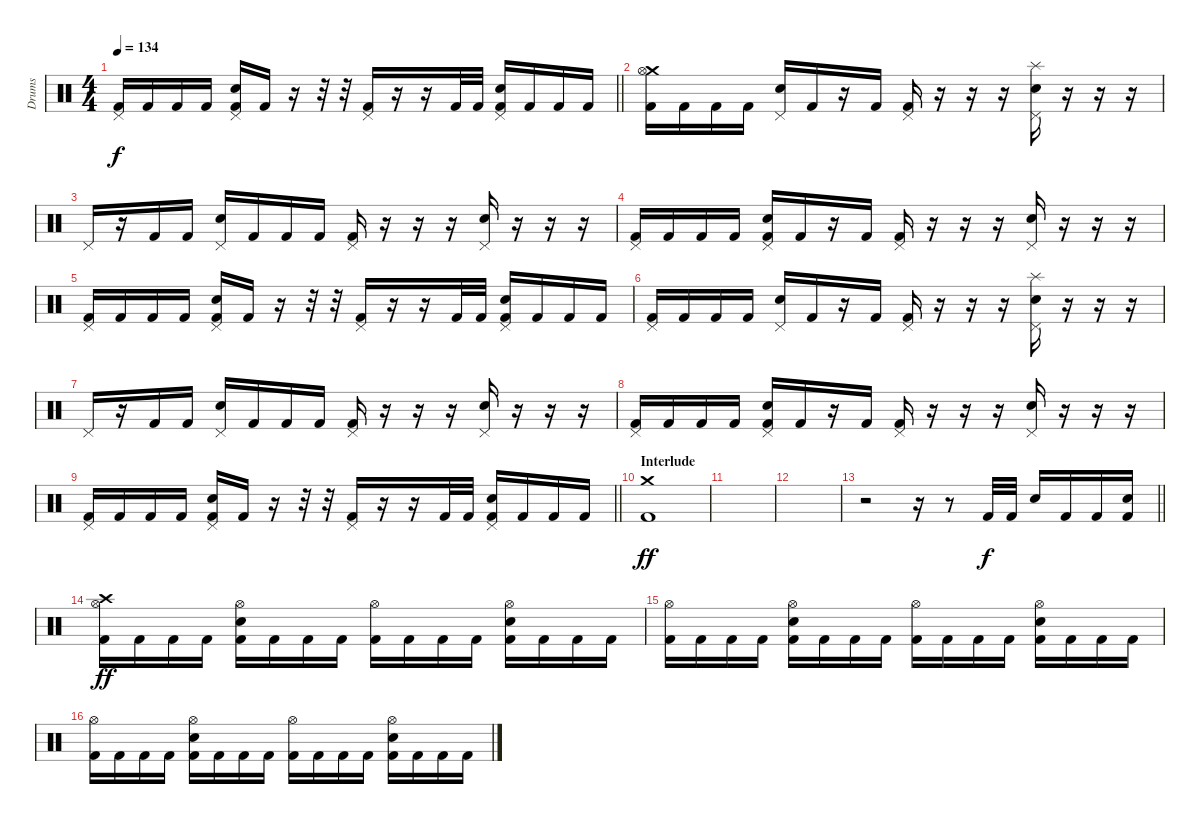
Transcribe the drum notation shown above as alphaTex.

\track ("Drums" "Drums") {instrument percussion}
\staff {score}
\articulation defaults
\ts (4 4)
\tempo 134
\clef neutral
\barLineRight lightlight
\ks c
("Pedal Hi-Hat (hit)" "Kick (hit) 2").16{dy f} "Kick (hit) 2".16 "Kick (hit) 2".16 "Kick (hit) 2".16 ("Pedal Hi-Hat (hit)" "Snare (hit) 2" "Kick (hit) 2").16 "Kick (hit) 2".16 r.16 r.32 r.32 ("Pedal Hi-Hat (hit)" "Kick (hit) 2").16 r.16 r.16 "Kick (hit) 2".32 "Kick (hit) 2".32 ("Pedal Hi-Hat (hit)" "Snare (hit) 2" "Kick (hit) 2").16 "Kick (hit) 2".16 "Kick (hit) 2".16 "Kick (hit) 2".16 |
\section ("" "")
("Crash medium (hit)" "Hi-Hat (open)" "Kick (hit) 2").16 "Kick (hit) 2".16 "Kick (hit) 2".16 "Kick (hit) 2".16 ("Pedal Hi-Hat (hit)" "Snare (hit) 2").16 "Kick (hit) 2".16 r.16 "Kick (hit) 2".16 ("Pedal Hi-Hat (hit)" "Kick (hit) 2").16 r.16 r.16 r.16 ("Splash (hit)" "Pedal Hi-Hat (hit)" "Snare (hit) 2").16 r.16 r.16 r.16 |
"Pedal Hi-Hat (hit)".16 r.16 "Kick (hit) 2".16 "Kick (hit) 2".16 ("Pedal Hi-Hat (hit)" "Snare (hit) 2").16 "Kick (hit) 2".16 "Kick (hit) 2".16 "Kick (hit) 2".16 ("Pedal Hi-Hat (hit)" "Kick (hit) 2").16 r.16 r.16 r.16 ("Pedal Hi-Hat (hit)" "Snare (hit) 2").16 r.16 r.16 r.16 |
("Pedal Hi-Hat (hit)" "Kick (hit) 2").16 "Kick (hit) 2".16 "Kick (hit) 2".16 "Kick (hit) 2".16 ("Pedal Hi-Hat (hit)" "Snare (hit) 2" "Kick (hit) 2").16 "Kick (hit) 2".16 r.16 "Kick (hit) 2".16 ("Pedal Hi-Hat (hit)" "Kick (hit) 2").16 r.16 r.16 r.16 ("Pedal Hi-Hat (hit)" "Snare (hit) 2").16 r.16 r.16 r.16 |
("Pedal Hi-Hat (hit)" "Kick (hit) 2").16 "Kick (hit) 2".16 "Kick (hit) 2".16 "Kick (hit) 2".16 ("Pedal Hi-Hat (hit)" "Snare (hit) 2" "Kick (hit) 2").16 "Kick (hit) 2".16 r.16 r.32 r.32 ("Pedal Hi-Hat (hit)" "Kick (hit) 2").16 r.16 r.16 "Kick (hit) 2".32 "Kick (hit) 2".32 ("Pedal Hi-Hat (hit)" "Snare (hit) 2" "Kick (hit) 2").16 "Kick (hit) 2".16 "Kick (hit) 2".16 "Kick (hit) 2".16 |
("Pedal Hi-Hat (hit)" "Kick (hit) 2").16 "Kick (hit) 2".16 "Kick (hit) 2".16 "Kick (hit) 2".16 ("Pedal Hi-Hat (hit)" "Snare (hit) 2").16 "Kick (hit) 2".16 r.16 "Kick (hit) 2".16 ("Pedal Hi-Hat (hit)" "Kick (hit) 2").16 r.16 r.16 r.16 ("Splash (hit)" "Pedal Hi-Hat (hit)" "Snare (hit) 2").16 r.16 r.16 r.16 |
"Pedal Hi-Hat (hit)".16 r.16 "Kick (hit) 2".16 "Kick (hit) 2".16 ("Pedal Hi-Hat (hit)" "Snare (hit) 2").16 "Kick (hit) 2".16 "Kick (hit) 2".16 "Kick (hit) 2".16 ("Pedal Hi-Hat (hit)" "Kick (hit) 2").16 r.16 r.16 r.16 ("Pedal Hi-Hat (hit)" "Snare (hit) 2").16 r.16 r.16 r.16 |
("Pedal Hi-Hat (hit)" "Kick (hit) 2").16 "Kick (hit) 2".16 "Kick (hit) 2".16 "Kick (hit) 2".16 ("Pedal Hi-Hat (hit)" "Snare (hit) 2" "Kick (hit) 2").16 "Kick (hit) 2".16 r.16 "Kick (hit) 2".16 ("Pedal Hi-Hat (hit)" "Kick (hit) 2").16 r.16 r.16 r.16 ("Pedal Hi-Hat (hit)" "Snare (hit) 2").16 r.16 r.16 r.16 |
\barLineRight lightlight
("Pedal Hi-Hat (hit)" "Kick (hit) 2").16 "Kick (hit) 2".16 "Kick (hit) 2".16 "Kick (hit) 2".16 ("Pedal Hi-Hat (hit)" "Snare (hit) 2" "Kick (hit) 2").16 "Kick (hit) 2".16 r.16 r.32 r.32 ("Pedal Hi-Hat (hit)" "Kick (hit) 2").16 r.16 r.16 "Kick (hit) 2".32 "Kick (hit) 2".32 ("Pedal Hi-Hat (hit)" "Snare (hit) 2" "Kick (hit) 2").16 "Kick (hit) 2".16 "Kick (hit) 2".16 "Kick (hit) 2".16 |
\section ("" "Interlude")
("Crash medium (hit)" "Kick (hit) 2").1{dy ff} |
|
|
\barLineRight lightlight
r.2 r.16 r.8 "Kick (hit) 2".32{dy f} "Kick (hit) 2".32 "Snare (hit) 2".16 "Kick (hit) 2".16 "Kick (hit) 2".16 ("Snare (hit) 2" "Kick (hit) 2").16 |
\section ("" "")
("Crash high (hit)" "Hi-Hat (open)" "Kick (hit) 2").16{dy ff} "Kick (hit) 2".16 "Kick (hit) 2".16 "Kick (hit) 2".16 ("Hi-Hat (open)" "Snare (hit) 2" "Kick (hit) 2").16 "Kick (hit) 2".16 "Kick (hit) 2".16 "Kick (hit) 2".16 ("Hi-Hat (open)" "Kick (hit) 2").16 "Kick (hit) 2".16 "Kick (hit) 2".16 "Kick (hit) 2".16 ("Hi-Hat (open)" "Snare (hit) 2" "Kick (hit) 2").16 "Kick (hit) 2".16 "Kick (hit) 2".16 "Kick (hit) 2".16 |
("Hi-Hat (open)" "Kick (hit) 2").16 "Kick (hit) 2".16 "Kick (hit) 2".16 "Kick (hit) 2".16 ("Hi-Hat (open)" "Snare (hit) 2" "Kick (hit) 2").16 "Kick (hit) 2".16 "Kick (hit) 2".16 "Kick (hit) 2".16 ("Hi-Hat (open)" "Kick (hit) 2").16 "Kick (hit) 2".16 "Kick (hit) 2".16 "Kick (hit) 2".16 ("Hi-Hat (open)" "Snare (hit) 2" "Kick (hit) 2").16 "Kick (hit) 2".16 "Kick (hit) 2".16 "Kick (hit) 2".16 |
("Hi-Hat (open)" "Kick (hit) 2").16 "Kick (hit) 2".16 "Kick (hit) 2".16 "Kick (hit) 2".16 ("Hi-Hat (open)" "Snare (hit) 2" "Kick (hit) 2").16 "Kick (hit) 2".16 "Kick (hit) 2".16 "Kick (hit) 2".16 ("Hi-Hat (open)" "Kick (hit) 2").16 "Kick (hit) 2".16 "Kick (hit) 2".16 "Kick (hit) 2".16 ("Hi-Hat (open)" "Snare (hit) 2" "Kick (hit) 2").16 "Kick (hit) 2".16 "Kick (hit) 2".16 "Kick (hit) 2".16
